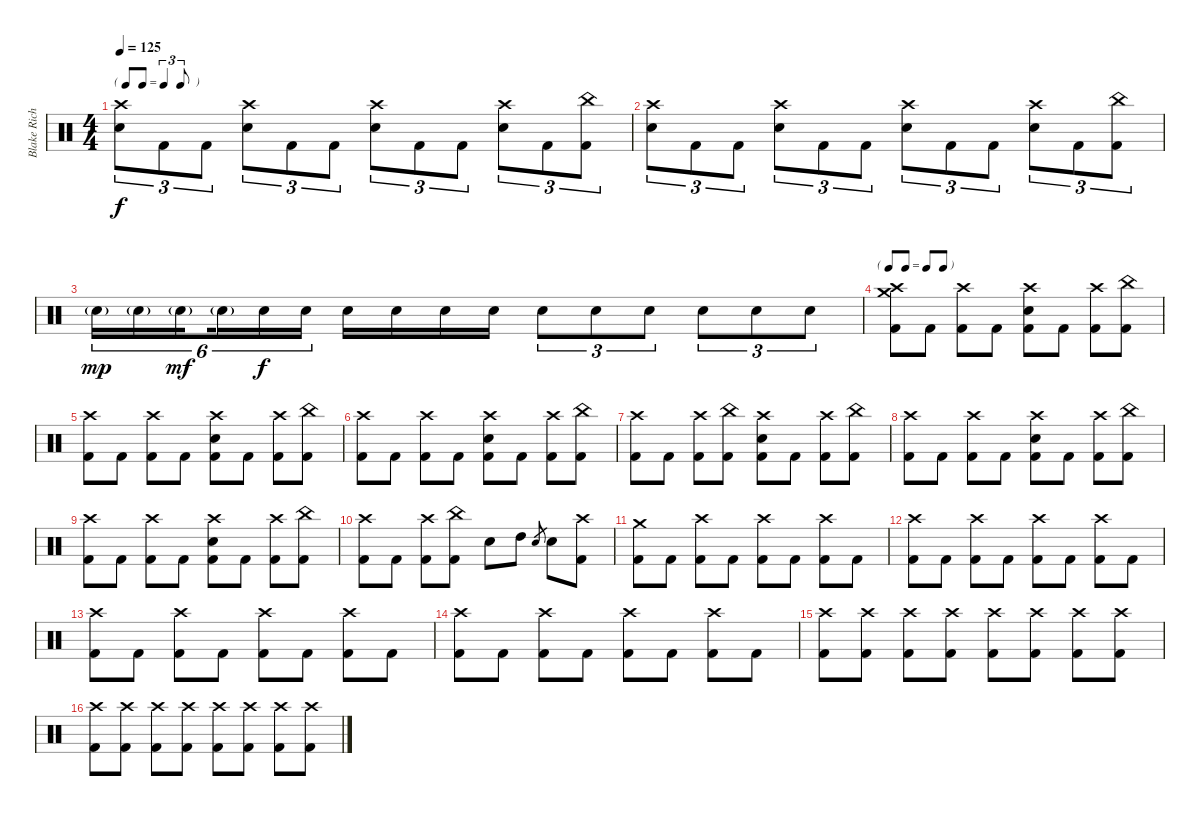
\track ("Blake Richardson - Drums" "Blake Rich") {instrument percussion}
\staff {score}
\articulation defaults
\ts (4 4)
\tf triplet8th
\tempo 125
\clef neutral
\ks c
("Crash high (hit)" "Electric Snare (hit)").8{tu (3 2) dy f} "Kick (hit) 2".8{tu (3 2)} "Kick (hit) 2".8{tu (3 2)} ("Crash high (hit)" "Electric Snare (hit)").8{tu (3 2)} "Kick (hit) 2".8{tu (3 2)} "Kick (hit) 2".8{tu (3 2)} ("Crash high (hit)" "Electric Snare (hit)").8{tu (3 2)} "Kick (hit) 2".8{tu (3 2)} "Kick (hit) 2".8{tu (3 2)} ("Crash high (hit)" "Electric Snare (hit)").8{tu (3 2)} "Kick (hit) 2".8{tu (3 2)} ("China (hit)" "Kick (hit) 2").8{tu (3 2)} |
("Crash high (hit)" "Electric Snare (hit)").8{tu (3 2)} "Kick (hit) 2".8{tu (3 2)} "Kick (hit) 2".8{tu (3 2)} ("Crash high (hit)" "Electric Snare (hit)").8{tu (3 2)} "Kick (hit) 2".8{tu (3 2)} "Kick (hit) 2".8{tu (3 2)} ("Crash high (hit)" "Electric Snare (hit)").8{tu (3 2)} "Kick (hit) 2".8{tu (3 2)} "Kick (hit) 2".8{tu (3 2)} ("Crash high (hit)" "Electric Snare (hit)").8{tu (3 2)} "Kick (hit) 2".8{tu (3 2)} ("China (hit)" "Kick (hit) 2").8{tu (3 2)} |
"Electric Snare (hit)"{g}.16{tu (6 4) dy mp} "Electric Snare (hit)"{g}.16{tu (6 4)} "Electric Snare (hit)"{g}.16{tu (6 4) dy mf beam splitsecondary} "Electric Snare (hit)"{g}.16{tu (6 4)} "Electric Snare (hit)".16{tu (6 4) dy f} "Electric Snare (hit)".16{tu (6 4)} "Electric Snare (hit)".16 "Electric Snare (hit)".16 "Electric Snare (hit)".16 "Electric Snare (hit)".16 "Electric Snare (hit)".8{tu (3 2)} "Electric Snare (hit)".8{tu (3 2)} "Electric Snare (hit)".8{tu (3 2)} "Electric Snare (hit)".8{tu (3 2)} "Electric Snare (hit)".8{tu (3 2)} "Electric Snare (hit)".8{tu (3 2)} |
\tf none
("Crash high (hit)" "Crash medium (hit)" "Kick (hit) 2").8 "Kick (hit) 2".8 ("Crash high (hit)" "Kick (hit) 2").8 "Kick (hit) 2".8 ("Crash high (hit)" "Electric Snare (hit)" "Kick (hit) 2").8 "Kick (hit) 2".8 ("Crash high (hit)" "Kick (hit) 2").8 ("China (hit)" "Kick (hit) 2").8 |
("Crash high (hit)" "Kick (hit) 2").8 "Kick (hit) 2".8 ("Crash high (hit)" "Kick (hit) 2").8 "Kick (hit) 2".8 ("Crash high (hit)" "Electric Snare (hit)" "Kick (hit) 2").8 "Kick (hit) 2".8 ("Crash high (hit)" "Kick (hit) 2").8 ("China (hit)" "Kick (hit) 2").8 |
("Crash high (hit)" "Kick (hit) 2").8 "Kick (hit) 2".8 ("Crash high (hit)" "Kick (hit) 2").8 "Kick (hit) 2".8 ("Crash high (hit)" "Electric Snare (hit)" "Kick (hit) 2").8 "Kick (hit) 2".8 ("Crash high (hit)" "Kick (hit) 2").8 ("China (hit)" "Kick (hit) 2").8 |
("Crash high (hit)" "Kick (hit) 2").8 "Kick (hit) 2".8 ("Crash high (hit)" "Kick (hit) 2").8 ("China (hit)" "Kick (hit) 2").8 ("Crash high (hit)" "Electric Snare (hit)" "Kick (hit) 2").8 "Kick (hit) 2".8 ("Crash high (hit)" "Kick (hit) 2").8 ("China (hit)" "Kick (hit) 2").8 |
("Crash high (hit)" "Kick (hit) 2").8 "Kick (hit) 2".8 ("Crash high (hit)" "Kick (hit) 2").8 "Kick (hit) 2".8 ("Crash high (hit)" "Electric Snare (hit)" "Kick (hit) 2").8 "Kick (hit) 2".8 ("Crash high (hit)" "Kick (hit) 2").8 ("China (hit)" "Kick (hit) 2").8 |
("Crash high (hit)" "Kick (hit) 2").8 "Kick (hit) 2".8 ("Crash high (hit)" "Kick (hit) 2").8 "Kick (hit) 2".8 ("Crash high (hit)" "Electric Snare (hit)" "Kick (hit) 2").8 "Kick (hit) 2".8 ("Crash high (hit)" "Kick (hit) 2").8 ("China (hit)" "Kick (hit) 2").8 |
("Crash high (hit)" "Kick (hit) 2").8 "Kick (hit) 2".8 ("Crash high (hit)" "Kick (hit) 2").8 ("China (hit)" "Kick (hit) 2").8 "Electric Snare (hit)".8 "High Tom (hit)".8 "Electric Snare (hit)".8{gr} "Electric Snare (hit)".8 ("Crash high (hit)" "Kick (hit) 2").8 |
("Crash medium (hit)" "Kick (hit) 2").8 "Kick (hit) 2".8 ("Crash high (hit)" "Kick (hit) 2").8 "Kick (hit) 2".8 ("Crash high (hit)" "Kick (hit) 2").8 "Kick (hit) 2".8 ("Crash high (hit)" "Kick (hit) 2").8 "Kick (hit) 2".8 |
("Crash high (hit)" "Kick (hit) 2").8 "Kick (hit) 2".8 ("Crash high (hit)" "Kick (hit) 2").8 "Kick (hit) 2".8 ("Crash high (hit)" "Kick (hit) 2").8 "Kick (hit) 2".8 ("Crash high (hit)" "Kick (hit) 2").8 "Kick (hit) 2".8 |
("Crash high (hit)" "Kick (hit) 2").8 "Kick (hit) 2".8 ("Crash high (hit)" "Kick (hit) 2").8 "Kick (hit) 2".8 ("Crash high (hit)" "Kick (hit) 2").8 "Kick (hit) 2".8 ("Crash high (hit)" "Kick (hit) 2").8 "Kick (hit) 2".8 |
("Crash high (hit)" "Kick (hit) 2").8 "Kick (hit) 2".8 ("Crash high (hit)" "Kick (hit) 2").8 "Kick (hit) 2".8 ("Crash high (hit)" "Kick (hit) 2").8 "Kick (hit) 2".8 ("Crash high (hit)" "Kick (hit) 2").8 "Kick (hit) 2".8 |
("Crash high (hit)" "Kick (hit) 2").8 ("Crash high (hit)" "Kick (hit) 2").8 ("Crash high (hit)" "Kick (hit) 2").8 ("Crash high (hit)" "Kick (hit) 2").8 ("Crash high (hit)" "Kick (hit) 2").8 ("Crash high (hit)" "Kick (hit) 2").8 ("Crash high (hit)" "Kick (hit) 2").8 ("Crash high (hit)" "Kick (hit) 2").8 |
("Crash high (hit)" "Kick (hit) 2").8 ("Crash high (hit)" "Kick (hit) 2").8 ("Crash high (hit)" "Kick (hit) 2").8 ("Crash high (hit)" "Kick (hit) 2").8 ("Crash high (hit)" "Kick (hit) 2").8 ("Crash high (hit)" "Kick (hit) 2").8 ("Crash high (hit)" "Kick (hit) 2").8 ("Crash high (hit)" "Kick (hit) 2").8
